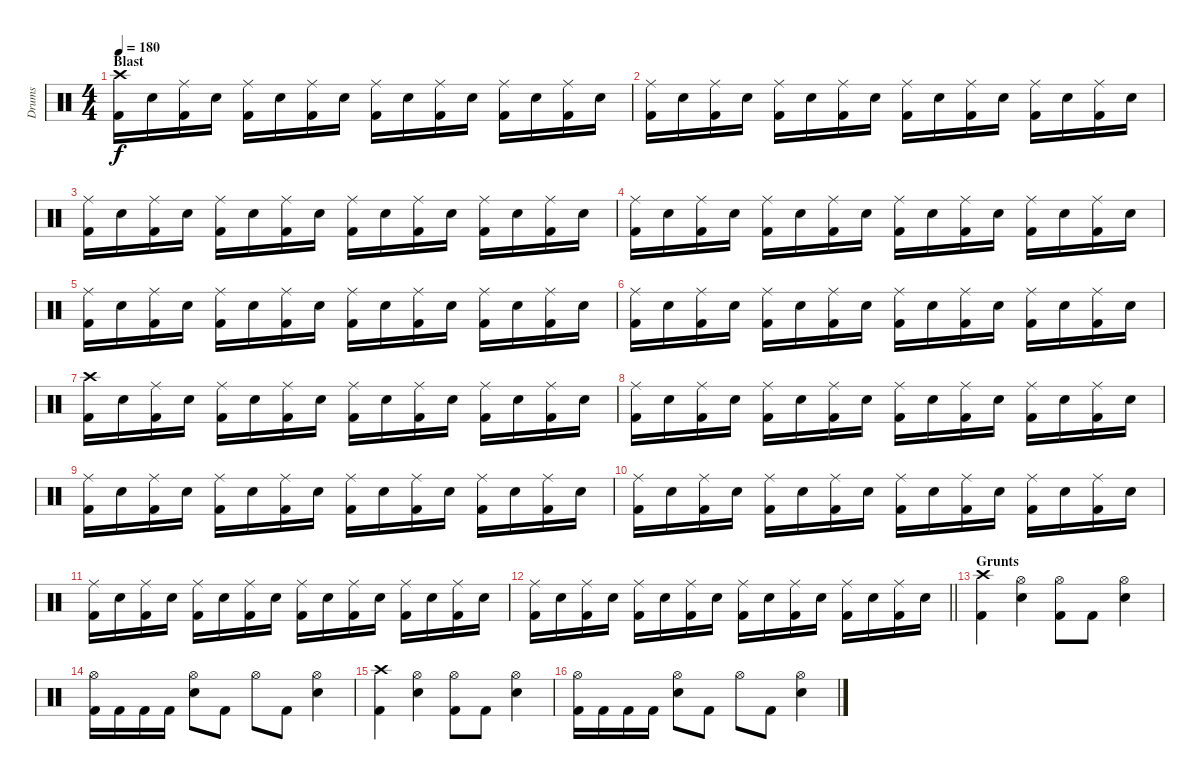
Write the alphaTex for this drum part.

\track ("Drums" "Drums") {instrument percussion}
\staff {score}
\articulation defaults
\ts (4 4)
\section ("" "Blast")
\tempo 180
\clef neutral
\ks c
("Crash high (hit)" "Kick (hit) 2").16{dy f} "Electric Snare (hit)".16 ("Ride (middle)" "Kick (hit) 2").16 "Electric Snare (hit)".16 ("Ride (middle)" "Kick (hit) 2").16 "Electric Snare (hit)".16 ("Ride (middle)" "Kick (hit) 2").16 "Electric Snare (hit)".16 ("Ride (middle)" "Kick (hit) 2").16 "Electric Snare (hit)".16 ("Ride (middle)" "Kick (hit) 2").16 "Electric Snare (hit)".16 ("Ride (middle)" "Kick (hit) 2").16 "Electric Snare (hit)".16 ("Ride (middle)" "Kick (hit) 2").16 "Electric Snare (hit)".16 |
("Ride (middle)" "Kick (hit) 2").16 "Electric Snare (hit)".16 ("Ride (middle)" "Kick (hit) 2").16 "Electric Snare (hit)".16 ("Ride (middle)" "Kick (hit) 2").16 "Electric Snare (hit)".16 ("Ride (middle)" "Kick (hit) 2").16 "Electric Snare (hit)".16 ("Ride (middle)" "Kick (hit) 2").16 "Electric Snare (hit)".16 ("Ride (middle)" "Kick (hit) 2").16 "Electric Snare (hit)".16 ("Ride (middle)" "Kick (hit) 2").16 "Electric Snare (hit)".16 ("Ride (middle)" "Kick (hit) 2").16 "Electric Snare (hit)".16 |
("Ride (middle)" "Kick (hit) 2").16 "Electric Snare (hit)".16 ("Ride (middle)" "Kick (hit) 2").16 "Electric Snare (hit)".16 ("Ride (middle)" "Kick (hit) 2").16 "Electric Snare (hit)".16 ("Ride (middle)" "Kick (hit) 2").16 "Electric Snare (hit)".16 ("Ride (middle)" "Kick (hit) 2").16 "Electric Snare (hit)".16 ("Ride (middle)" "Kick (hit) 2").16 "Electric Snare (hit)".16 ("Ride (middle)" "Kick (hit) 2").16 "Electric Snare (hit)".16 ("Ride (middle)" "Kick (hit) 2").16 "Electric Snare (hit)".16 |
("Ride (middle)" "Kick (hit) 2").16 "Electric Snare (hit)".16 ("Ride (middle)" "Kick (hit) 2").16 "Electric Snare (hit)".16 ("Ride (middle)" "Kick (hit) 2").16 "Electric Snare (hit)".16 ("Ride (middle)" "Kick (hit) 2").16 "Electric Snare (hit)".16 ("Ride (middle)" "Kick (hit) 2").16 "Electric Snare (hit)".16 ("Ride (middle)" "Kick (hit) 2").16 "Electric Snare (hit)".16 ("Ride (middle)" "Kick (hit) 2").16 "Electric Snare (hit)".16 ("Ride (middle)" "Kick (hit) 2").16 "Electric Snare (hit)".16 |
("Ride (middle)" "Kick (hit) 2").16 "Electric Snare (hit)".16 ("Ride (middle)" "Kick (hit) 2").16 "Electric Snare (hit)".16 ("Ride (middle)" "Kick (hit) 2").16 "Electric Snare (hit)".16 ("Ride (middle)" "Kick (hit) 2").16 "Electric Snare (hit)".16 ("Ride (middle)" "Kick (hit) 2").16 "Electric Snare (hit)".16 ("Ride (middle)" "Kick (hit) 2").16 "Electric Snare (hit)".16 ("Ride (middle)" "Kick (hit) 2").16 "Electric Snare (hit)".16 ("Ride (middle)" "Kick (hit) 2").16 "Electric Snare (hit)".16 |
("Ride (middle)" "Kick (hit) 2").16 "Electric Snare (hit)".16 ("Ride (middle)" "Kick (hit) 2").16 "Electric Snare (hit)".16 ("Ride (middle)" "Kick (hit) 2").16 "Electric Snare (hit)".16 ("Ride (middle)" "Kick (hit) 2").16 "Electric Snare (hit)".16 ("Ride (middle)" "Kick (hit) 2").16 "Electric Snare (hit)".16 ("Ride (middle)" "Kick (hit) 2").16 "Electric Snare (hit)".16 ("Ride (middle)" "Kick (hit) 2").16 "Electric Snare (hit)".16 ("Ride (middle)" "Kick (hit) 2").16 "Electric Snare (hit)".16 |
("Crash high (hit)" "Kick (hit) 2").16 "Electric Snare (hit)".16 ("Ride (middle)" "Kick (hit) 2").16 "Electric Snare (hit)".16 ("Ride (middle)" "Kick (hit) 2").16 "Electric Snare (hit)".16 ("Ride (middle)" "Kick (hit) 2").16 "Electric Snare (hit)".16 ("Ride (middle)" "Kick (hit) 2").16 "Electric Snare (hit)".16 ("Ride (middle)" "Kick (hit) 2").16 "Electric Snare (hit)".16 ("Ride (middle)" "Kick (hit) 2").16 "Electric Snare (hit)".16 ("Ride (middle)" "Kick (hit) 2").16 "Electric Snare (hit)".16 |
("Ride (middle)" "Kick (hit) 2").16 "Electric Snare (hit)".16 ("Ride (middle)" "Kick (hit) 2").16 "Electric Snare (hit)".16 ("Ride (middle)" "Kick (hit) 2").16 "Electric Snare (hit)".16 ("Ride (middle)" "Kick (hit) 2").16 "Electric Snare (hit)".16 ("Ride (middle)" "Kick (hit) 2").16 "Electric Snare (hit)".16 ("Ride (middle)" "Kick (hit) 2").16 "Electric Snare (hit)".16 ("Ride (middle)" "Kick (hit) 2").16 "Electric Snare (hit)".16 ("Ride (middle)" "Kick (hit) 2").16 "Electric Snare (hit)".16 |
("Ride (middle)" "Kick (hit) 2").16 "Electric Snare (hit)".16 ("Ride (middle)" "Kick (hit) 2").16 "Electric Snare (hit)".16 ("Ride (middle)" "Kick (hit) 2").16 "Electric Snare (hit)".16 ("Ride (middle)" "Kick (hit) 2").16 "Electric Snare (hit)".16 ("Ride (middle)" "Kick (hit) 2").16 "Electric Snare (hit)".16 ("Ride (middle)" "Kick (hit) 2").16 "Electric Snare (hit)".16 ("Ride (middle)" "Kick (hit) 2").16 "Electric Snare (hit)".16 ("Ride (middle)" "Kick (hit) 2").16 "Electric Snare (hit)".16 |
("Ride (middle)" "Kick (hit) 2").16 "Electric Snare (hit)".16 ("Ride (middle)" "Kick (hit) 2").16 "Electric Snare (hit)".16 ("Ride (middle)" "Kick (hit) 2").16 "Electric Snare (hit)".16 ("Ride (middle)" "Kick (hit) 2").16 "Electric Snare (hit)".16 ("Ride (middle)" "Kick (hit) 2").16 "Electric Snare (hit)".16 ("Ride (middle)" "Kick (hit) 2").16 "Electric Snare (hit)".16 ("Ride (middle)" "Kick (hit) 2").16 "Electric Snare (hit)".16 ("Ride (middle)" "Kick (hit) 2").16 "Electric Snare (hit)".16 |
("Ride (middle)" "Kick (hit) 2").16 "Electric Snare (hit)".16 ("Ride (middle)" "Kick (hit) 2").16 "Electric Snare (hit)".16 ("Ride (middle)" "Kick (hit) 2").16 "Electric Snare (hit)".16 ("Ride (middle)" "Kick (hit) 2").16 "Electric Snare (hit)".16 ("Ride (middle)" "Kick (hit) 2").16 "Electric Snare (hit)".16 ("Ride (middle)" "Kick (hit) 2").16 "Electric Snare (hit)".16 ("Ride (middle)" "Kick (hit) 2").16 "Electric Snare (hit)".16 ("Ride (middle)" "Kick (hit) 2").16 "Electric Snare (hit)".16 |
\barLineRight lightlight
("Ride (middle)" "Kick (hit) 2").16 "Electric Snare (hit)".16 ("Ride (middle)" "Kick (hit) 2").16 "Electric Snare (hit)".16 ("Ride (middle)" "Kick (hit) 2").16 "Electric Snare (hit)".16 ("Ride (middle)" "Kick (hit) 2").16 "Electric Snare (hit)".16 ("Ride (middle)" "Kick (hit) 2").16 "Electric Snare (hit)".16 ("Ride (middle)" "Kick (hit) 2").16 "Electric Snare (hit)".16 ("Ride (middle)" "Kick (hit) 2").16 "Electric Snare (hit)".16 ("Ride (middle)" "Kick (hit) 2").16 "Electric Snare (hit)".16 |
\section ("" "Grunts")
("Crash high (hit)" "Kick (hit) 2").4 ("Hi-Hat (open)" "Electric Snare (hit)").4 ("Hi-Hat (open)" "Kick (hit) 2").8 "Kick (hit) 2".8 ("Hi-Hat (open)" "Electric Snare (hit)").4 |
("Hi-Hat (open)" "Kick (hit) 2").16 "Kick (hit) 2".16 "Kick (hit) 2".16 "Kick (hit) 2".16 ("Hi-Hat (open)" "Electric Snare (hit)").8 "Kick (hit) 2".8 "Hi-Hat (open)".8 "Kick (hit) 2".8 ("Hi-Hat (open)" "Electric Snare (hit)").4 |
("Crash high (hit)" "Kick (hit) 2").4 ("Hi-Hat (open)" "Electric Snare (hit)").4 ("Hi-Hat (open)" "Kick (hit) 2").8 "Kick (hit) 2".8 ("Hi-Hat (open)" "Electric Snare (hit)").4 |
("Hi-Hat (open)" "Kick (hit) 2").16 "Kick (hit) 2".16 "Kick (hit) 2".16 "Kick (hit) 2".16 ("Hi-Hat (open)" "Electric Snare (hit)").8 "Kick (hit) 2".8 "Hi-Hat (open)".8 "Kick (hit) 2".8 ("Hi-Hat (open)" "Electric Snare (hit)").4
